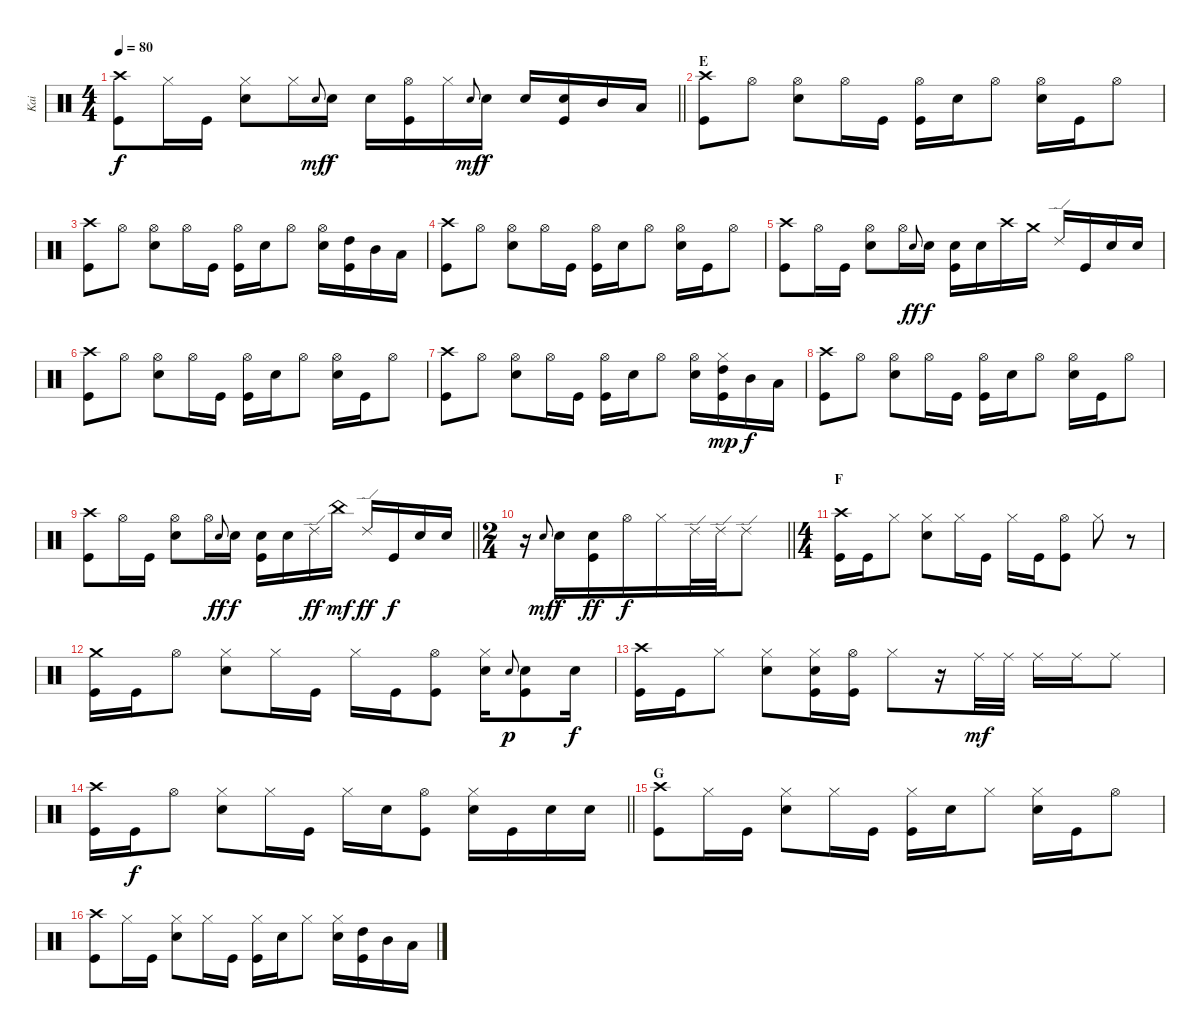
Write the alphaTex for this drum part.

\track ("Kai" "Kai") {instrument percussion}
\staff {score}
\articulation defaults
\ts (4 4)
\tempo 80
\clef neutral
\barLineRight lightlight
\ks c
("Kick (hit)" "Crash high (hit)").8{dy f} "Hi-Hat (closed)".16 "Kick (hit)".16 ("Snare (hit) 2" "Hi-Hat (closed)").8 "Hi-Hat (closed)".16 "Snare (hit) 2".8{gr onbeat dy mf} "Snare (hit) 2".16{dy f} "Snare (hit) 2".16 ("Kick (hit)" "Hi-Hat (open)").16 "Hi-Hat (closed)".16 "Snare (hit) 2".8{gr onbeat dy mf} "Snare (hit) 2".16{dy f} "Snare (hit) 2".16 ("Snare (hit) 2" "Kick (hit)").16 "Mid Tom (hit)".16 "Low Tom (hit)".16 |
\section ("" "E")
("Kick (hit)" "Crash high (hit)").8 "Hi-Hat (open)".8 ("Snare (hit) 2" "Hi-Hat (open)").8 "Hi-Hat (open)".16 "Kick (hit)".16 ("Kick (hit)" "Hi-Hat (open)").16 "Snare (hit) 2".16 "Hi-Hat (open)".8 ("Snare (hit) 2" "Hi-Hat (open)").16 "Kick (hit)".16 "Hi-Hat (open)".8 |
("Kick (hit)" "Crash high (hit)").8 "Hi-Hat (open)".8 ("Snare (hit) 2" "Hi-Hat (open)").8 "Hi-Hat (open)".16 "Kick (hit)".16 ("Kick (hit)" "Hi-Hat (open)").16 "Snare (hit) 2".16 "Hi-Hat (open)".8 ("Snare (hit) 2" "Hi-Hat (open)").16 ("High Tom (hit)" "Kick (hit)").16 "Mid Tom (hit)".16 "Low Tom (hit)".16 |
("Kick (hit)" "Crash high (hit)").8 "Hi-Hat (open)".8 ("Snare (hit) 2" "Hi-Hat (open)").8 "Hi-Hat (open)".16 "Kick (hit)".16 ("Kick (hit)" "Hi-Hat (open)").16 "Snare (hit) 2".16 "Hi-Hat (open)".8 ("Snare (hit) 2" "Hi-Hat (open)").16 "Kick (hit)".16 "Hi-Hat (open)".8 |
("Kick (hit)" "Crash high (hit)").8 "Hi-Hat (open)".16 "Kick (hit)".16 ("Snare (hit) 2" "Hi-Hat (open)").8 "Hi-Hat (open)".16 "Snare (hit) 2".8{gr onbeat dy ff} "Snare (hit) 2".16{dy f} ("Snare (hit) 2" "Kick (hit)").16 "Snare (hit) 2".16 "Crash high (hit)".16 "Crash medium (hit)".16 "Ride (edge) 2".16 "Kick (hit)".16 "Snare (hit) 2".16 "Snare (hit) 2".16 |
("Kick (hit)" "Crash high (hit)").8 "Hi-Hat (open)".8 ("Snare (hit) 2" "Hi-Hat (open)").8 "Hi-Hat (open)".16 "Kick (hit)".16 ("Kick (hit)" "Hi-Hat (open)").16 "Snare (hit) 2".16 "Hi-Hat (open)".8 ("Snare (hit) 2" "Hi-Hat (open)").16 "Kick (hit)".16 "Hi-Hat (open)".8 |
("Kick (hit)" "Crash high (hit)").8 "Hi-Hat (open)".8 ("Snare (hit) 2" "Hi-Hat (open)").8 "Hi-Hat (open)".16 "Kick (hit)".16 ("Kick (hit)" "Hi-Hat (open)").16 "Snare (hit) 2".16 "Hi-Hat (open)".8 ("Snare (hit) 2" "Hi-Hat (open)").16 ("High Tom (hit)" "Hi-Hat (closed)" "Kick (hit)").16{dy mp} "Mid Tom (hit)".16{dy f} "Low Tom (hit)".16 |
("Kick (hit)" "Crash high (hit)").8 "Hi-Hat (open)".8 ("Snare (hit) 2" "Hi-Hat (open)").8 "Hi-Hat (open)".16 "Kick (hit)".16 ("Kick (hit)" "Hi-Hat (open)").16 "Snare (hit) 2".16 "Hi-Hat (open)".8 ("Snare (hit) 2" "Hi-Hat (open)").16 "Kick (hit)".16 "Hi-Hat (open)".8 |
\barLineRight lightlight
("Kick (hit)" "Crash high (hit)").8 "Hi-Hat (open)".16 "Kick (hit)".16 ("Snare (hit) 2" "Hi-Hat (open)").8 "Hi-Hat (open)".16 "Snare (hit) 2".8{gr onbeat dy ff} "Snare (hit) 2".16{dy f} ("Snare (hit) 2" "Kick (hit)").16 "Snare (hit) 2".16 "Ride (edge) 2".16{dy ff} "China (hit)".16{dy mf} "Ride (edge) 2".16{dy ff} "Kick (hit)".16{dy f} "Snare (hit) 2".16 "Snare (hit) 2".16 |
\ts (2 4)
\section ("" "")
\barLineRight lightlight
r.16 "Snare (hit) 2".8{gr onbeat dy mf} "Snare (hit) 2".16{dy f} ("Snare (hit) 2" "Kick (hit)").16{dy ff} "Hi-Hat (open)".16{dy f beam merge} "Hi-Hat (closed)".16 "Ride (edge) 2".32 "Ride (edge) 2".32 "Ride (edge) 2".8 |
\ts (4 4)
\section ("" "F")
("Crash high (hit)" "Kick (hit)").16 "Kick (hit)".16 "Hi-Hat (closed)".8 ("Snare (hit) 2" "Hi-Hat (closed)").8 "Hi-Hat (closed)".16 "Kick (hit)".16 "Hi-Hat (closed)".16 "Kick (hit)".16 ("Kick (hit)" "Hi-Hat (open)").8 "Hi-Hat (closed)".8 r.8 |
("Crash medium (hit)" "Kick (hit)").16 "Kick (hit)".16 "Hi-Hat (open)".8 ("Snare (hit) 2" "Hi-Hat (closed)").8 "Hi-Hat (closed)".16 "Kick (hit)".16 "Hi-Hat (closed)".16 "Kick (hit)".16 ("Kick (hit)" "Hi-Hat (open)").8 ("Snare (hit) 2" "Hi-Hat (closed)").16 "Snare (hit) 2".8{gr onbeat dy p} ("Kick (hit)" "Snare (hit) 2").8 "Snare (hit) 2".16{dy f} |
("Crash high (hit)" "Kick (hit)").16 "Kick (hit)".16 "Hi-Hat (closed)".8 ("Snare (hit) 2" "Hi-Hat (closed)").8 ("Hi-Hat (closed)" "Snare (hit) 2" "Kick (hit)").16 ("Kick (hit)" "Hi-Hat (open)").16 "Hi-Hat (closed)".8 r.16 "Ride (middle)".32{dy mf} "Ride (middle)".32 "Ride (middle)".16 "Ride (middle)".16 "Ride (middle)".8 |
\barLineRight lightlight
("Crash high (hit)" "Kick (hit)").16 "Kick (hit)".16{dy f} "Hi-Hat (open)".8 ("Hi-Hat (closed)" "Snare (hit) 2").8 "Hi-Hat (closed)".16 "Kick (hit)".16 "Hi-Hat (closed)".16 "Snare (hit) 2".16 ("Hi-Hat (open)" "Kick (hit)").8 ("Snare (hit) 2" "Hi-Hat (closed)").16 "Kick (hit)".16 "Snare (hit) 2".16 "Snare (hit) 2".16 |
\section ("" "G")
("Kick (hit)" "Crash high (hit)").8 "Hi-Hat (closed)".16 "Kick (hit)".16 ("Snare (hit) 2" "Hi-Hat (closed)").8 "Hi-Hat (closed)".16 "Kick (hit)".16 ("Kick (hit)" "Hi-Hat (closed)").16 "Snare (hit) 2".16 "Hi-Hat (closed)".8 ("Snare (hit) 2" "Hi-Hat (closed)").16 "Kick (hit)".16 "Hi-Hat (open)".8 |
("Kick (hit)" "Crash high (hit)").8 "Hi-Hat (closed)".16 "Kick (hit)".16 ("Snare (hit) 2" "Hi-Hat (closed)").8 "Hi-Hat (closed)".16 "Kick (hit)".16 ("Kick (hit)" "Hi-Hat (closed)").16 "Snare (hit) 2".16 "Hi-Hat (closed)".8 ("Snare (hit) 2" "Hi-Hat (closed)").16 ("High Tom (hit)" "Kick (hit)").16 "Mid Tom (hit)".16 "Low Tom (hit)".16
